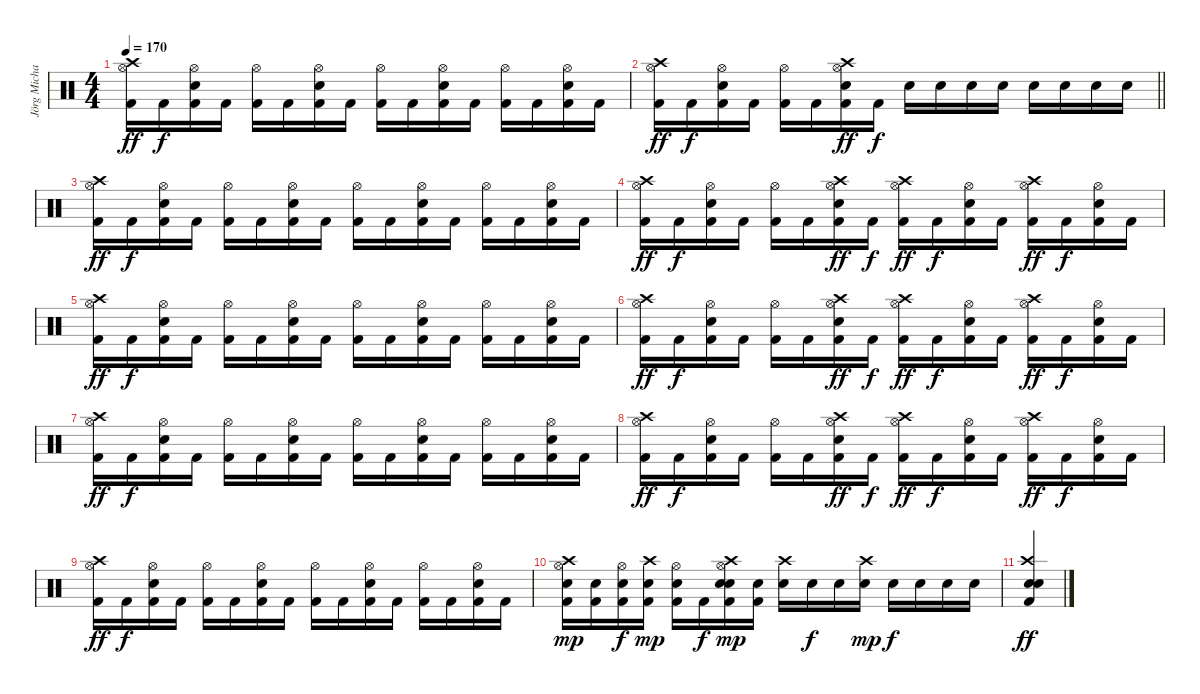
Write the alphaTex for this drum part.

\track ("Jörg Michael" "Jörg Micha") {instrument percussion}
\staff {score}
\articulation defaults
\ts (4 4)
\tempo 170
\clef neutral
\ks c
("Hi-Hat (open)" "Kick (hit) 2" "Crash high (hit)").16{dy ff} "Kick (hit) 2".16{dy f} ("Electric Snare (hit)" "Hi-Hat (open)" "Kick (hit) 2").16 "Kick (hit) 2".16 ("Hi-Hat (open)" "Kick (hit) 2").16 "Kick (hit) 2".16 ("Electric Snare (hit)" "Hi-Hat (open)" "Kick (hit) 2").16 "Kick (hit) 2".16 ("Hi-Hat (open)" "Kick (hit) 2").16 "Kick (hit) 2".16 ("Electric Snare (hit)" "Hi-Hat (open)" "Kick (hit) 2").16 "Kick (hit) 2".16 ("Hi-Hat (open)" "Kick (hit) 2").16 "Kick (hit) 2".16 ("Electric Snare (hit)" "Hi-Hat (open)" "Kick (hit) 2").16 "Kick (hit) 2".16 |
\barLineRight lightlight
("Hi-Hat (open)" "Kick (hit) 2" "Crash high (hit)").16{dy ff} "Kick (hit) 2".16{dy f} ("Electric Snare (hit)" "Hi-Hat (open)" "Kick (hit) 2").16 "Kick (hit) 2".16 ("Hi-Hat (open)" "Kick (hit) 2").16 "Kick (hit) 2".16 ("Electric Snare (hit)" "Hi-Hat (open)" "Kick (hit) 2" "Crash high (hit)").16{dy ff} "Kick (hit) 2".16{dy f} "Electric Snare (hit)".16 "Electric Snare (hit)".16 "Electric Snare (hit)".16 "Electric Snare (hit)".16 "Electric Snare (hit)".16 "Electric Snare (hit)".16 "Electric Snare (hit)".16 "Electric Snare (hit)".16 |
("Hi-Hat (open)" "Kick (hit) 2" "Crash high (hit)").16{dy ff} "Kick (hit) 2".16{dy f} ("Electric Snare (hit)" "Hi-Hat (open)" "Kick (hit) 2").16 "Kick (hit) 2".16 ("Hi-Hat (open)" "Kick (hit) 2").16 "Kick (hit) 2".16 ("Electric Snare (hit)" "Hi-Hat (open)" "Kick (hit) 2").16 "Kick (hit) 2".16 ("Hi-Hat (open)" "Kick (hit) 2").16 "Kick (hit) 2".16 ("Electric Snare (hit)" "Hi-Hat (open)" "Kick (hit) 2").16 "Kick (hit) 2".16 ("Hi-Hat (open)" "Kick (hit) 2").16 "Kick (hit) 2".16 ("Electric Snare (hit)" "Hi-Hat (open)" "Kick (hit) 2").16 "Kick (hit) 2".16 |
("Hi-Hat (open)" "Kick (hit) 2" "Crash high (hit)").16{dy ff} "Kick (hit) 2".16{dy f} ("Electric Snare (hit)" "Hi-Hat (open)" "Kick (hit) 2").16 "Kick (hit) 2".16 ("Hi-Hat (open)" "Kick (hit) 2").16 "Kick (hit) 2".16 ("Electric Snare (hit)" "Hi-Hat (open)" "Kick (hit) 2" "Crash high (hit)").16{dy ff} "Kick (hit) 2".16{dy f} ("Hi-Hat (open)" "Kick (hit) 2" "Crash high (hit)").16{dy ff} "Kick (hit) 2".16{dy f} ("Electric Snare (hit)" "Hi-Hat (open)" "Kick (hit) 2").16 "Kick (hit) 2".16 ("Hi-Hat (open)" "Kick (hit) 2" "Crash high (hit)").16{dy ff} "Kick (hit) 2".16{dy f} ("Electric Snare (hit)" "Hi-Hat (open)" "Kick (hit) 2").16 "Kick (hit) 2".16 |
("Hi-Hat (open)" "Kick (hit) 2" "Crash high (hit)").16{dy ff} "Kick (hit) 2".16{dy f} ("Electric Snare (hit)" "Hi-Hat (open)" "Kick (hit) 2").16 "Kick (hit) 2".16 ("Hi-Hat (open)" "Kick (hit) 2").16 "Kick (hit) 2".16 ("Electric Snare (hit)" "Hi-Hat (open)" "Kick (hit) 2").16 "Kick (hit) 2".16 ("Hi-Hat (open)" "Kick (hit) 2").16 "Kick (hit) 2".16 ("Electric Snare (hit)" "Hi-Hat (open)" "Kick (hit) 2").16 "Kick (hit) 2".16 ("Hi-Hat (open)" "Kick (hit) 2").16 "Kick (hit) 2".16 ("Electric Snare (hit)" "Hi-Hat (open)" "Kick (hit) 2").16 "Kick (hit) 2".16 |
("Hi-Hat (open)" "Kick (hit) 2" "Crash high (hit)").16{dy ff} "Kick (hit) 2".16{dy f} ("Electric Snare (hit)" "Hi-Hat (open)" "Kick (hit) 2").16 "Kick (hit) 2".16 ("Hi-Hat (open)" "Kick (hit) 2").16 "Kick (hit) 2".16 ("Electric Snare (hit)" "Hi-Hat (open)" "Kick (hit) 2" "Crash high (hit)").16{dy ff} "Kick (hit) 2".16{dy f} ("Hi-Hat (open)" "Kick (hit) 2" "Crash high (hit)").16{dy ff} "Kick (hit) 2".16{dy f} ("Electric Snare (hit)" "Hi-Hat (open)" "Kick (hit) 2").16 "Kick (hit) 2".16 ("Hi-Hat (open)" "Kick (hit) 2" "Crash high (hit)").16{dy ff} "Kick (hit) 2".16{dy f} ("Electric Snare (hit)" "Hi-Hat (open)" "Kick (hit) 2").16 "Kick (hit) 2".16 |
("Hi-Hat (open)" "Kick (hit) 2" "Crash high (hit)").16{dy ff} "Kick (hit) 2".16{dy f} ("Electric Snare (hit)" "Hi-Hat (open)" "Kick (hit) 2").16 "Kick (hit) 2".16 ("Hi-Hat (open)" "Kick (hit) 2").16 "Kick (hit) 2".16 ("Electric Snare (hit)" "Hi-Hat (open)" "Kick (hit) 2").16 "Kick (hit) 2".16 ("Hi-Hat (open)" "Kick (hit) 2").16 "Kick (hit) 2".16 ("Electric Snare (hit)" "Hi-Hat (open)" "Kick (hit) 2").16 "Kick (hit) 2".16 ("Hi-Hat (open)" "Kick (hit) 2").16 "Kick (hit) 2".16 ("Electric Snare (hit)" "Hi-Hat (open)" "Kick (hit) 2").16 "Kick (hit) 2".16 |
("Hi-Hat (open)" "Kick (hit) 2" "Crash high (hit)").16{dy ff} "Kick (hit) 2".16{dy f} ("Electric Snare (hit)" "Hi-Hat (open)" "Kick (hit) 2").16 "Kick (hit) 2".16 ("Hi-Hat (open)" "Kick (hit) 2").16 "Kick (hit) 2".16 ("Electric Snare (hit)" "Hi-Hat (open)" "Kick (hit) 2" "Crash high (hit)").16{dy ff} "Kick (hit) 2".16{dy f} ("Hi-Hat (open)" "Kick (hit) 2" "Crash high (hit)").16{dy ff} "Kick (hit) 2".16{dy f} ("Electric Snare (hit)" "Hi-Hat (open)" "Kick (hit) 2").16 "Kick (hit) 2".16 ("Hi-Hat (open)" "Kick (hit) 2" "Crash high (hit)").16{dy ff} "Kick (hit) 2".16{dy f} ("Electric Snare (hit)" "Hi-Hat (open)" "Kick (hit) 2").16 "Kick (hit) 2".16 |
("Hi-Hat (open)" "Kick (hit) 2" "Crash high (hit)").16{dy ff} "Kick (hit) 2".16{dy f} ("Electric Snare (hit)" "Hi-Hat (open)" "Kick (hit) 2").16 "Kick (hit) 2".16 ("Hi-Hat (open)" "Kick (hit) 2").16 "Kick (hit) 2".16 ("Electric Snare (hit)" "Hi-Hat (open)" "Kick (hit) 2").16 "Kick (hit) 2".16 ("Hi-Hat (open)" "Kick (hit) 2").16 "Kick (hit) 2".16 ("Electric Snare (hit)" "Hi-Hat (open)" "Kick (hit) 2").16 "Kick (hit) 2".16 ("Hi-Hat (open)" "Kick (hit) 2").16 "Kick (hit) 2".16 ("Electric Snare (hit)" "Hi-Hat (open)" "Kick (hit) 2").16 "Kick (hit) 2".16 |
("Hi-Hat (open)" "Kick (hit) 2" "Crash high (hit)" "Electric Snare (hit)").16{dy mp} ("Kick (hit) 2" "Electric Snare (hit)").16 ("Electric Snare (hit)" "Hi-Hat (open)" "Kick (hit) 2").16{dy f} ("Kick (hit) 2" "Crash high (hit)" "Electric Snare (hit)").16{dy mp} ("Hi-Hat (open)" "Kick (hit) 2" "Electric Snare (hit)").16 "Kick (hit) 2".16{dy f} ("Electric Snare (hit)" "Hi-Hat (open)" "Kick (hit) 2" "Crash high (hit)" "Electric Snare (hit)").16{dy mp} ("Kick (hit) 2" "Electric Snare (hit)").16 ("Electric Snare (hit)" "Crash high (hit)").16 "Electric Snare (hit)".16{dy f} "Electric Snare (hit)".16 ("Electric Snare (hit)" "Crash high (hit)").16{dy mp} "Electric Snare (hit)".16{dy f} "Electric Snare (hit)".16 "Electric Snare (hit)".16 "Electric Snare (hit)".16 |
("Kick (hit) 2" "Electric Snare (hit)" "Electric Snare (hit)" "Crash high (hit)").4{dy ff}
